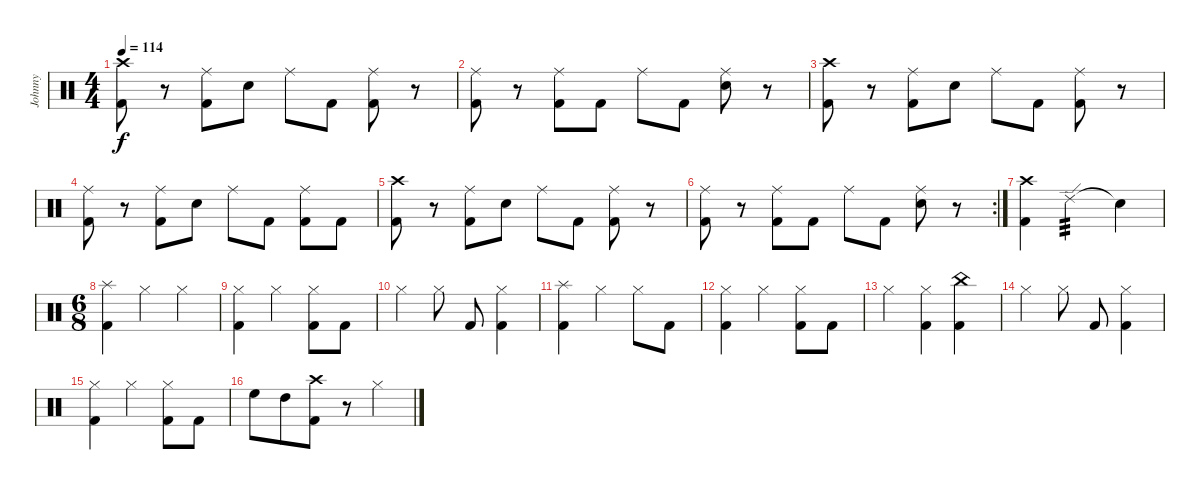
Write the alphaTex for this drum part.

\track ("Johnny" "Johnny") {instrument percussion}
\staff {score}
\articulation defaults
\ts (4 4)
\tempo 114
\clef neutral
\ks c
("Crash high (hit)" "Kick (hit) 2").8{dy f} r.8 ("Ride (middle)" "Kick (hit) 2").8 "Electric Snare (hit)".8 "Ride (middle)".8 "Kick (hit) 2".8 ("Ride (middle)" "Kick (hit) 2").8 r.8 |
("Ride (middle)" "Kick (hit) 2").8 r.8 ("Ride (middle)" "Kick (hit) 2").8 "Kick (hit) 2".8 "Ride (middle)".8 "Kick (hit) 2".8 ("Ride (middle)" "Electric Snare (hit)").8 r.8 |
("Crash high (hit)" "Kick (hit) 2").8 r.8 ("Ride (middle)" "Kick (hit) 2").8 "Electric Snare (hit)".8 "Ride (middle)".8 "Kick (hit) 2".8 ("Ride (middle)" "Kick (hit) 2").8 r.8 |
("Ride (middle)" "Kick (hit) 2").8 r.8 ("Ride (middle)" "Kick (hit) 2").8 "Electric Snare (hit)".8 "Ride (middle)".8 "Kick (hit) 2".8 ("Ride (middle)" "Kick (hit) 2").8 "Kick (hit) 2".8 |
("Crash high (hit)" "Kick (hit) 2").8 r.8 ("Ride (middle)" "Kick (hit) 2").8 "Electric Snare (hit)".8 "Ride (middle)".8 "Kick (hit) 2".8 ("Ride (middle)" "Kick (hit) 2").8 r.8 |
\rc 2
("Ride (middle)" "Kick (hit) 2").8 r.8 ("Ride (middle)" "Kick (hit) 2").8 "Kick (hit) 2".8 "Ride (middle)".8 "Kick (hit) 2".8 ("Ride (middle)" "Electric Snare (hit)").8 r.8 |
("Crash high (hit)" "Kick (hit) 2").4{volume 6} "Ride (edge) 2".2{tp 3 volume 13} "Snare (hit)"{t}.4 |
\ts (6 8)
("Splash (hit)" "Kick (hit) 2").4 "Hi-Hat (closed)".4 "Hi-Hat (closed)".4 |
("Hi-Hat (closed)" "Kick (hit) 2").4 "Hi-Hat (closed)".4 ("Hi-Hat (closed)" "Kick (hit) 2").8 "Kick (hit) 2".8 |
"Hi-Hat (closed)".4 "Hi-Hat (closed)".8 "Kick (hit) 2".8 ("Hi-Hat (closed)" "Kick (hit) 2").4 |
("Splash (hit)" "Kick (hit) 2").4 "Hi-Hat (closed)".4 "Hi-Hat (closed)".8 "Kick (hit) 2".8 |
("Hi-Hat (closed)" "Kick (hit) 2").4 "Hi-Hat (closed)".4 ("Hi-Hat (closed)" "Kick (hit) 2").8 "Kick (hit) 2".8 |
"Hi-Hat (closed)".4 ("Hi-Hat (closed)" "Kick (hit) 2").4 ("China (hit)" "Kick (hit) 2").4 |
"Hi-Hat (closed)".4 "Hi-Hat (closed)".8 "Kick (hit) 2".8 ("Hi-Hat (closed)" "Kick (hit) 2").4 |
("Hi-Hat (closed)" "Kick (hit) 2").4 "Hi-Hat (closed)".4 ("Hi-Hat (closed)" "Kick (hit) 2").8 "Kick (hit) 2".8 |
"High Floor Tom (hit)".8 "High Tom (hit)".8 ("Kick (hit) 2" "Crash high (hit)").8 r.8 "Hi-Hat (closed)".4
